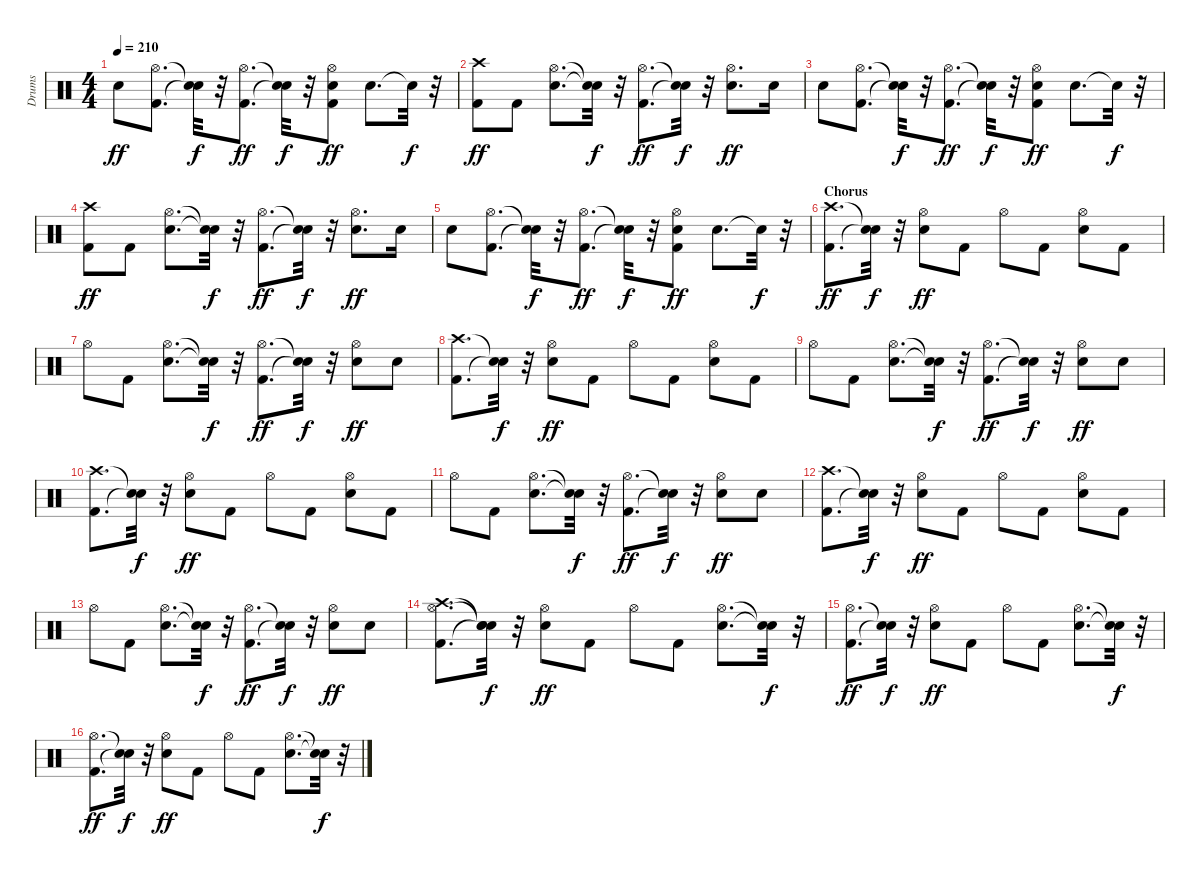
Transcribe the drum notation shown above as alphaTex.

\track ("Drums" "Drums") {instrument percussion}
\staff {score}
\articulation defaults
\ts (4 4)
\tempo 210
\clef neutral
\ks c "Snare (hit) 2".8{dy ff}
("Kick (hit) 2" "Hi-Hat (open)").8{d} ("Snare (hit)"{t} "Snare (hit)"{t}).32{dy f} r.32 ("Kick (hit) 2" "Hi-Hat (open)").8{d dy ff} ("Snare (hit)"{t} "Snare (hit)"{t}).32{dy f} r.32 ("Kick (hit) 2" "Snare (hit) 2" "Hi-Hat (open)").8{dy ff} "Snare (hit) 2".8{d} "Snare (hit)"{t}.32{dy f} r.32 |
("Kick (hit) 2" "Crash high (hit)").8{dy ff} "Kick (hit) 2".8 ("Snare (hit) 2" "Hi-Hat (open)").8{d} ("Snare (hit)"{t} "Snare (hit)"{t}).32{dy f} r.32 ("Kick (hit) 2" "Hi-Hat (open)").8{d dy ff} ("Snare (hit)"{t} "Snare (hit)"{t}).32{dy f} r.32 ("Snare (hit) 2" "Hi-Hat (open)").8{d dy ff} "Snare (hit) 2".16 |
"Snare (hit) 2".8 ("Kick (hit) 2" "Hi-Hat (open)").8{d} ("Snare (hit)"{t} "Snare (hit)"{t}).32{dy f} r.32 ("Kick (hit) 2" "Hi-Hat (open)").8{d dy ff} ("Snare (hit)"{t} "Snare (hit)"{t}).32{dy f} r.32 ("Kick (hit) 2" "Snare (hit) 2" "Hi-Hat (open)").8{dy ff} "Snare (hit) 2".8{d} "Snare (hit)"{t}.32{dy f} r.32 |
("Kick (hit) 2" "Crash high (hit)").8{dy ff} "Kick (hit) 2".8 ("Snare (hit) 2" "Hi-Hat (open)").8{d} ("Snare (hit)"{t} "Snare (hit)"{t}).32{dy f} r.32 ("Kick (hit) 2" "Hi-Hat (open)").8{d dy ff} ("Snare (hit)"{t} "Snare (hit)"{t}).32{dy f} r.32 ("Snare (hit) 2" "Hi-Hat (open)").8{d dy ff} "Snare (hit) 2".16 |
"Snare (hit) 2".8 ("Kick (hit) 2" "Hi-Hat (open)").8{d} ("Snare (hit)"{t} "Snare (hit)"{t}).32{dy f} r.32 ("Kick (hit) 2" "Hi-Hat (open)").8{d dy ff} ("Snare (hit)"{t} "Snare (hit)"{t}).32{dy f} r.32 ("Kick (hit) 2" "Snare (hit) 2" "Hi-Hat (open)").8{dy ff} "Snare (hit) 2".8{d} "Snare (hit)"{t}.32{dy f} r.32 |
\section ("" "Chorus")
("Kick (hit) 2" "Crash high (hit)").8{d dy ff} ("Snare (hit)"{t} "Snare (hit)"{t}).32{dy f} r.32 ("Snare (hit) 2" "Hi-Hat (open)").8{dy ff} "Kick (hit) 2".8 "Hi-Hat (open)".8 "Kick (hit) 2".8 ("Snare (hit) 2" "Hi-Hat (open)").8 "Kick (hit) 2".8 |
"Hi-Hat (open)".8 "Kick (hit) 2".8 ("Snare (hit) 2" "Hi-Hat (open)").8{d} ("Snare (hit)"{t} "Snare (hit)"{t}).32{dy f} r.32 ("Kick (hit) 2" "Hi-Hat (open)").8{d dy ff} ("Snare (hit)"{t} "Snare (hit)"{t}).32{dy f} r.32 ("Snare (hit) 2" "Hi-Hat (open)").8{dy ff} "Snare (hit) 2".8 |
("Kick (hit) 2" "Crash high (hit)").8{d} ("Snare (hit)"{t} "Snare (hit)"{t}).32{dy f} r.32 ("Snare (hit) 2" "Hi-Hat (open)").8{dy ff} "Kick (hit) 2".8 "Hi-Hat (open)".8 "Kick (hit) 2".8 ("Snare (hit) 2" "Hi-Hat (open)").8 "Kick (hit) 2".8 |
"Hi-Hat (open)".8 "Kick (hit) 2".8 ("Snare (hit) 2" "Hi-Hat (open)").8{d} ("Snare (hit)"{t} "Snare (hit)"{t}).32{dy f} r.32 ("Kick (hit) 2" "Hi-Hat (open)").8{d dy ff} ("Snare (hit)"{t} "Snare (hit)"{t}).32{dy f} r.32 ("Snare (hit) 2" "Hi-Hat (open)").8{dy ff} "Snare (hit) 2".8 |
("Kick (hit) 2" "Crash high (hit)").8{d} ("Snare (hit)"{t} "Snare (hit)"{t}).32{dy f} r.32 ("Snare (hit) 2" "Hi-Hat (open)").8{dy ff} "Kick (hit) 2".8 "Hi-Hat (open)".8 "Kick (hit) 2".8 ("Snare (hit) 2" "Hi-Hat (open)").8 "Kick (hit) 2".8 |
"Hi-Hat (open)".8 "Kick (hit) 2".8 ("Snare (hit) 2" "Hi-Hat (open)").8{d} ("Snare (hit)"{t} "Snare (hit)"{t}).32{dy f} r.32 ("Kick (hit) 2" "Hi-Hat (open)").8{d dy ff} ("Snare (hit)"{t} "Snare (hit)"{t}).32{dy f} r.32 ("Snare (hit) 2" "Hi-Hat (open)").8{dy ff} "Snare (hit) 2".8 |
("Kick (hit) 2" "Crash high (hit)").8{d} ("Snare (hit)"{t} "Snare (hit)"{t}).32{dy f} r.32 ("Snare (hit) 2" "Hi-Hat (open)").8{dy ff} "Kick (hit) 2".8 "Hi-Hat (open)".8 "Kick (hit) 2".8 ("Snare (hit) 2" "Hi-Hat (open)").8 "Kick (hit) 2".8 |
"Hi-Hat (open)".8 "Kick (hit) 2".8 ("Snare (hit) 2" "Hi-Hat (open)").8{d} ("Snare (hit)"{t} "Snare (hit)"{t}).32{dy f} r.32 ("Kick (hit) 2" "Hi-Hat (open)").8{d dy ff} ("Snare (hit)"{t} "Snare (hit)"{t}).32{dy f} r.32 ("Snare (hit) 2" "Hi-Hat (open)").8{dy ff} "Snare (hit) 2".8 |
("Kick (hit) 2" "Hi-Hat (open)" "Crash high (hit)").8{d} ("Snare (hit)"{t} "Snare (hit)"{t} "Snare (hit)"{t}).32{dy f} r.32 ("Snare (hit) 2" "Hi-Hat (open)").8{dy ff} "Kick (hit) 2".8 "Hi-Hat (open)".8 "Kick (hit) 2".8 ("Snare (hit) 2" "Hi-Hat (open)").8{d} ("Snare (hit)"{t} "Snare (hit)"{t}).32{dy f} r.32 |
("Kick (hit) 2" "Hi-Hat (open)").8{d dy ff} ("Snare (hit)"{t} "Snare (hit)"{t}).32{dy f} r.32 ("Snare (hit) 2" "Hi-Hat (open)").8{dy ff} "Kick (hit) 2".8 "Hi-Hat (open)".8 "Kick (hit) 2".8 ("Snare (hit) 2" "Hi-Hat (open)").8{d} ("Snare (hit)"{t} "Snare (hit)"{t}).32{dy f} r.32 |
("Kick (hit) 2" "Hi-Hat (open)").8{d dy ff} ("Snare (hit)"{t} "Snare (hit)"{t}).32{dy f} r.32 ("Snare (hit) 2" "Hi-Hat (open)").8{dy ff} "Kick (hit) 2".8 "Hi-Hat (open)".8 "Kick (hit) 2".8 ("Snare (hit) 2" "Hi-Hat (open)").8{d} ("Snare (hit)"{t} "Snare (hit)"{t}).32{dy f} r.32
